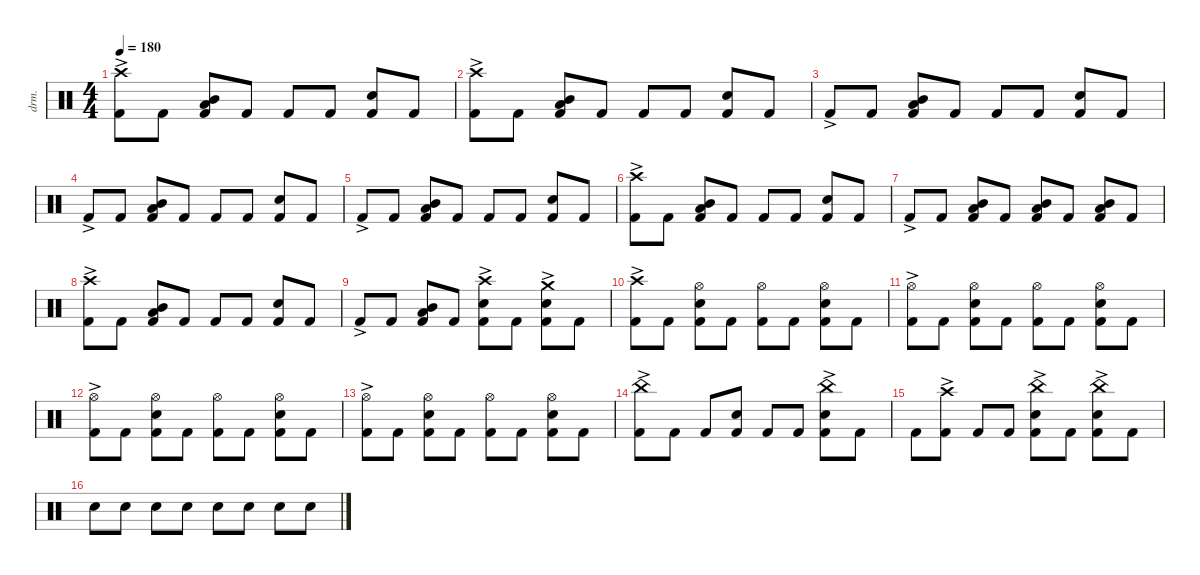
\defaultSystemsLayout 4
\hideDynamics
\bracketExtendMode nobrackets
\otherSystemsTrackNameOrientation horizontal
\track ("Drum" "drm.") {instrument percussion}
\staff {score}
\articulation defaults
\ts (4 4)
\tempo 180
\clef neutral
\ks c
("Kick (hit) 2"{ac} "Crash high (hit)"{ac}).8{dy f beam Down} "Kick (hit) 2".8{beam Down} ("Kick (hit) 2" "Low Tom (hit)" "Mid Tom (hit)").8{beam Up} "Kick (hit) 2".8{beam Up} "Kick (hit) 2".8{beam Up} "Kick (hit) 2".8{beam Up} ("Kick (hit) 2" "Snare (hit) 2").8{beam Up} "Kick (hit) 2".8{beam Up} |
("Kick (hit) 2"{ac} "Crash high (hit)"{ac}).8{beam Down} "Kick (hit) 2".8{beam Down} ("Kick (hit) 2" "Low Tom (hit)" "Mid Tom (hit)").8{beam Up} "Kick (hit) 2".8{beam Up} "Kick (hit) 2".8{beam Up} "Kick (hit) 2".8{beam Up} ("Kick (hit) 2" "Snare (hit) 2").8{beam Up} "Kick (hit) 2".8{beam Up} |
"Kick (hit) 2"{ac}.8{beam Up} "Kick (hit) 2".8{beam Up} ("Kick (hit) 2" "Low Tom (hit)" "Mid Tom (hit)").8{beam Up} "Kick (hit) 2".8{beam Up} "Kick (hit) 2".8{beam Up} "Kick (hit) 2".8{beam Up} ("Kick (hit) 2" "Snare (hit) 2").8{beam Up} "Kick (hit) 2".8{beam Up} |
"Kick (hit) 2"{ac}.8{beam Up} "Kick (hit) 2".8{beam Up} ("Kick (hit) 2" "Low Tom (hit)" "Mid Tom (hit)").8{beam Up} "Kick (hit) 2".8{beam Up} "Kick (hit) 2".8{beam Up} "Kick (hit) 2".8{beam Up} ("Kick (hit) 2" "Snare (hit) 2").8{beam Up} "Kick (hit) 2".8{beam Up} |
"Kick (hit) 2"{ac}.8{beam Up} "Kick (hit) 2".8{beam Up} ("Kick (hit) 2" "Low Tom (hit)" "Mid Tom (hit)").8{beam Up} "Kick (hit) 2".8{beam Up} "Kick (hit) 2".8{beam Up} "Kick (hit) 2".8{beam Up} ("Kick (hit) 2" "Snare (hit) 2").8{beam Up} "Kick (hit) 2".8{beam Up} |
("Kick (hit) 2"{ac} "Crash high (hit)"{ac}).8{beam Down} "Kick (hit) 2".8{beam Down} ("Kick (hit) 2" "Low Tom (hit)" "Mid Tom (hit)").8{beam Up} "Kick (hit) 2".8{beam Up} "Kick (hit) 2".8{beam Up} "Kick (hit) 2".8{beam Up} ("Kick (hit) 2" "Snare (hit) 2").8{beam Up} "Kick (hit) 2".8{beam Up} |
"Kick (hit) 2"{ac}.8{beam Up} "Kick (hit) 2".8{beam Up} ("Kick (hit) 2" "Low Tom (hit)" "Mid Tom (hit)").8{beam Up} "Kick (hit) 2".8{beam Up} ("Kick (hit) 2" "Mid Tom (hit)" "Low Tom (hit)").8{beam Up} "Kick (hit) 2".8{beam Up} ("Kick (hit) 2" "Mid Tom (hit)" "Low Tom (hit)").8{beam Up} "Kick (hit) 2".8{beam Up} |
("Kick (hit) 2"{ac} "Crash high (hit)").8{beam Down} "Kick (hit) 2".8{beam Down} ("Kick (hit) 2" "Low Tom (hit)" "Mid Tom (hit)").8{beam Up} "Kick (hit) 2".8{beam Up} "Kick (hit) 2".8{beam Up} "Kick (hit) 2".8{beam Up} ("Kick (hit) 2" "Snare (hit) 2").8{beam Up} "Kick (hit) 2".8{beam Up} |
"Kick (hit) 2"{ac}.8{beam Up} "Kick (hit) 2".8{beam Up} ("Kick (hit) 2" "Low Tom (hit)" "Mid Tom (hit)").8{beam Up} "Kick (hit) 2".8{beam Up} ("Kick (hit) 2"{ac} "Snare (hit) 2"{ac} "Crash high (hit)"{ac}).8{beam Down} "Kick (hit) 2".8{beam Down} ("Kick (hit) 2"{ac} "Snare (hit) 2"{ac} "Crash medium (hit)"{ac}).8{beam Down} "Kick (hit) 2".8{beam Down} |
("Kick (hit) 2"{ac} "Crash high (hit)"{ac}).8{beam Down} "Kick (hit) 2".8{beam Down} ("Kick (hit) 2" "Snare (hit) 2" "Hi-Hat (open)").8{beam Down} "Kick (hit) 2".8{beam Down} ("Kick (hit) 2" "Hi-Hat (open)").8{beam Down} "Kick (hit) 2".8{beam Down} ("Kick (hit) 2" "Snare (hit) 2" "Hi-Hat (open)").8{beam Down} "Kick (hit) 2".8{beam Down} |
("Kick (hit) 2"{ac} "Hi-Hat (open)").8{beam Down} "Kick (hit) 2".8{beam Down} ("Kick (hit) 2" "Snare (hit) 2" "Hi-Hat (open)").8{beam Down} "Kick (hit) 2".8{beam Down} ("Kick (hit) 2" "Hi-Hat (open)").8{beam Down} "Kick (hit) 2".8{beam Down} ("Kick (hit) 2" "Snare (hit) 2" "Hi-Hat (open)").8{beam Down} "Kick (hit) 2".8{beam Down} |
("Kick (hit) 2"{ac} "Hi-Hat (open)").8{beam Down} "Kick (hit) 2".8{beam Down} ("Kick (hit) 2" "Snare (hit) 2" "Hi-Hat (open)").8{beam Down} "Kick (hit) 2".8{beam Down} ("Kick (hit) 2" "Hi-Hat (open)").8{beam Down} "Kick (hit) 2".8{beam Down} ("Kick (hit) 2" "Snare (hit) 2" "Hi-Hat (open)").8{beam Down} "Kick (hit) 2".8{beam Down} |
("Kick (hit) 2"{ac} "Hi-Hat (open)").8{beam Down} "Kick (hit) 2".8{beam Down} ("Kick (hit) 2" "Snare (hit) 2" "Hi-Hat (open)").8{beam Down} "Kick (hit) 2".8{beam Down} ("Kick (hit) 2" "Hi-Hat (open)").8{beam Down} "Kick (hit) 2".8{beam Down} ("Kick (hit) 2" "Snare (hit) 2" "Hi-Hat (open)").8{beam Down} "Kick (hit) 2".8{beam Down} |
("Kick (hit) 2"{ac} "China (hit)").8{beam Down} "Kick (hit) 2".8{beam Down} "Kick (hit) 2".8{beam Up} ("Kick (hit) 2" "Snare (hit) 2").8{beam Up} "Kick (hit) 2".8{beam Up} "Kick (hit) 2".8{beam Up} ("Kick (hit) 2"{ac} "Snare (hit) 2"{ac} "China (hit)").8{beam Down} "Kick (hit) 2".8{beam Down} |
"Kick (hit) 2".8{beam Down} ("Kick (hit) 2"{ac} "Crash high (hit)"{ac}).8{beam Down} "Kick (hit) 2".8{beam Up} "Kick (hit) 2".8{beam Up} ("Kick (hit) 2"{ac} "Snare (hit) 2"{ac} "China (hit)").8{beam Down} "Kick (hit) 2".8{beam Down} ("Kick (hit) 2"{ac} "Snare (hit) 2"{ac} "China (hit)").8{beam Down} "Kick (hit) 2".8{beam Down} |
"Snare (hit) 2".8{beam Down} "Snare (hit) 2".8{beam Down} "Snare (hit) 2".8{beam Down} "Snare (hit) 2".8{beam Down} "Snare (hit) 2".8{beam Down} "Snare (hit) 2".8{beam Down} "Snare (hit) 2".8{beam Down} "Snare (hit) 2".8{beam Down}
